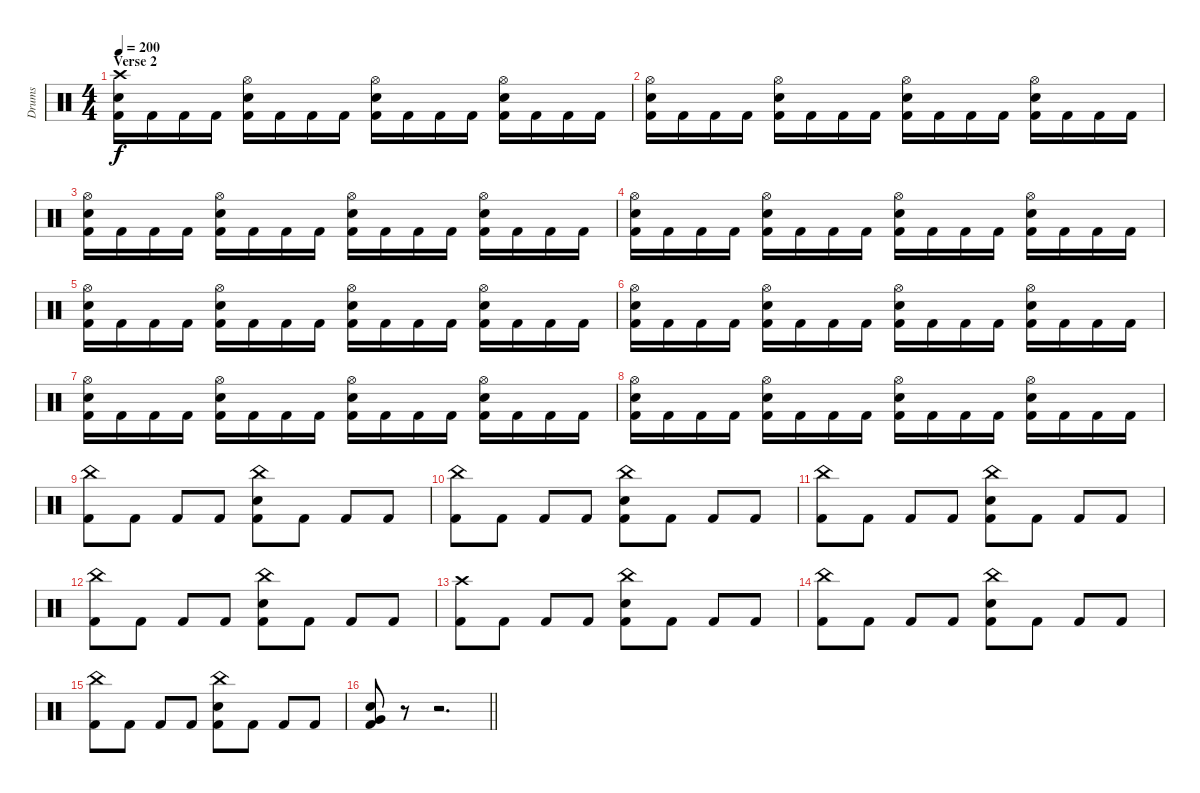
\track ("Drums" "Drums") {instrument percussion}
\staff {score}
\articulation defaults
\ts (4 4)
\section ("" "Verse 2")
\tempo 200
\clef neutral
\ks c
("Crash high (hit)" "Electric Snare (hit)" "Kick (hit) 2").16{dy f} "Kick (hit) 2".16 "Kick (hit) 2".16 "Kick (hit) 2".16 ("Hi-Hat (open)" "Electric Snare (hit)" "Kick (hit) 2").16 "Kick (hit) 2".16 "Kick (hit) 2".16 "Kick (hit) 2".16 ("Hi-Hat (open)" "Electric Snare (hit)" "Kick (hit) 2").16 "Kick (hit) 2".16 "Kick (hit) 2".16 "Kick (hit) 2".16 ("Hi-Hat (open)" "Electric Snare (hit)" "Kick (hit) 2").16 "Kick (hit) 2".16 "Kick (hit) 2".16 "Kick (hit) 2".16 |
("Hi-Hat (open)" "Electric Snare (hit)" "Kick (hit) 2").16 "Kick (hit) 2".16 "Kick (hit) 2".16 "Kick (hit) 2".16 ("Hi-Hat (open)" "Electric Snare (hit)" "Kick (hit) 2").16 "Kick (hit) 2".16 "Kick (hit) 2".16 "Kick (hit) 2".16 ("Hi-Hat (open)" "Electric Snare (hit)" "Kick (hit) 2").16 "Kick (hit) 2".16 "Kick (hit) 2".16 "Kick (hit) 2".16 ("Hi-Hat (open)" "Electric Snare (hit)" "Kick (hit) 2").16 "Kick (hit) 2".16 "Kick (hit) 2".16 "Kick (hit) 2".16 |
("Hi-Hat (open)" "Electric Snare (hit)" "Kick (hit) 2").16 "Kick (hit) 2".16 "Kick (hit) 2".16 "Kick (hit) 2".16 ("Hi-Hat (open)" "Electric Snare (hit)" "Kick (hit) 2").16 "Kick (hit) 2".16 "Kick (hit) 2".16 "Kick (hit) 2".16 ("Hi-Hat (open)" "Electric Snare (hit)" "Kick (hit) 2").16 "Kick (hit) 2".16 "Kick (hit) 2".16 "Kick (hit) 2".16 ("Hi-Hat (open)" "Electric Snare (hit)" "Kick (hit) 2").16 "Kick (hit) 2".16 "Kick (hit) 2".16 "Kick (hit) 2".16 |
("Hi-Hat (open)" "Electric Snare (hit)" "Kick (hit) 2").16 "Kick (hit) 2".16 "Kick (hit) 2".16 "Kick (hit) 2".16 ("Hi-Hat (open)" "Electric Snare (hit)" "Kick (hit) 2").16 "Kick (hit) 2".16 "Kick (hit) 2".16 "Kick (hit) 2".16 ("Hi-Hat (open)" "Electric Snare (hit)" "Kick (hit) 2").16 "Kick (hit) 2".16 "Kick (hit) 2".16 "Kick (hit) 2".16 ("Hi-Hat (open)" "Electric Snare (hit)" "Kick (hit) 2").16 "Kick (hit) 2".16 "Kick (hit) 2".16 "Kick (hit) 2".16 |
("Hi-Hat (open)" "Electric Snare (hit)" "Kick (hit) 2").16 "Kick (hit) 2".16 "Kick (hit) 2".16 "Kick (hit) 2".16 ("Hi-Hat (open)" "Electric Snare (hit)" "Kick (hit) 2").16 "Kick (hit) 2".16 "Kick (hit) 2".16 "Kick (hit) 2".16 ("Hi-Hat (open)" "Electric Snare (hit)" "Kick (hit) 2").16 "Kick (hit) 2".16 "Kick (hit) 2".16 "Kick (hit) 2".16 ("Hi-Hat (open)" "Electric Snare (hit)" "Kick (hit) 2").16 "Kick (hit) 2".16 "Kick (hit) 2".16 "Kick (hit) 2".16 |
("Hi-Hat (open)" "Electric Snare (hit)" "Kick (hit) 2").16 "Kick (hit) 2".16 "Kick (hit) 2".16 "Kick (hit) 2".16 ("Hi-Hat (open)" "Electric Snare (hit)" "Kick (hit) 2").16 "Kick (hit) 2".16 "Kick (hit) 2".16 "Kick (hit) 2".16 ("Hi-Hat (open)" "Electric Snare (hit)" "Kick (hit) 2").16 "Kick (hit) 2".16 "Kick (hit) 2".16 "Kick (hit) 2".16 ("Hi-Hat (open)" "Electric Snare (hit)" "Kick (hit) 2").16 "Kick (hit) 2".16 "Kick (hit) 2".16 "Kick (hit) 2".16 |
("Hi-Hat (open)" "Electric Snare (hit)" "Kick (hit) 2").16 "Kick (hit) 2".16 "Kick (hit) 2".16 "Kick (hit) 2".16 ("Hi-Hat (open)" "Electric Snare (hit)" "Kick (hit) 2").16 "Kick (hit) 2".16 "Kick (hit) 2".16 "Kick (hit) 2".16 ("Hi-Hat (open)" "Electric Snare (hit)" "Kick (hit) 2").16 "Kick (hit) 2".16 "Kick (hit) 2".16 "Kick (hit) 2".16 ("Hi-Hat (open)" "Electric Snare (hit)" "Kick (hit) 2").16 "Kick (hit) 2".16 "Kick (hit) 2".16 "Kick (hit) 2".16 |
("Hi-Hat (open)" "Electric Snare (hit)" "Kick (hit) 2").16 "Kick (hit) 2".16 "Kick (hit) 2".16 "Kick (hit) 2".16 ("Hi-Hat (open)" "Electric Snare (hit)" "Kick (hit) 2").16 "Kick (hit) 2".16 "Kick (hit) 2".16 "Kick (hit) 2".16 ("Hi-Hat (open)" "Electric Snare (hit)" "Kick (hit) 2").16 "Kick (hit) 2".16 "Kick (hit) 2".16 "Kick (hit) 2".16 ("Hi-Hat (open)" "Electric Snare (hit)" "Kick (hit) 2").16 "Kick (hit) 2".16 "Kick (hit) 2".16 "Kick (hit) 2".16 |
("China (hit)" "Kick (hit) 2").8 "Kick (hit) 2".8 "Kick (hit) 2".8 "Kick (hit) 2".8 ("China (hit)" "Electric Snare (hit)" "Kick (hit) 2").8 "Kick (hit) 2".8 "Kick (hit) 2".8 "Kick (hit) 2".8 |
("China (hit)" "Kick (hit) 2").8 "Kick (hit) 2".8 "Kick (hit) 2".8 "Kick (hit) 2".8 ("China (hit)" "Electric Snare (hit)" "Kick (hit) 2").8 "Kick (hit) 2".8 "Kick (hit) 2".8 "Kick (hit) 2".8 |
("China (hit)" "Kick (hit) 2").8 "Kick (hit) 2".8 "Kick (hit) 2".8 "Kick (hit) 2".8 ("China (hit)" "Electric Snare (hit)" "Kick (hit) 2").8 "Kick (hit) 2".8 "Kick (hit) 2".8 "Kick (hit) 2".8 |
("China (hit)" "Kick (hit) 2").8 "Kick (hit) 2".8 "Kick (hit) 2".8 "Kick (hit) 2".8 ("China (hit)" "Electric Snare (hit)" "Kick (hit) 2").8 "Kick (hit) 2".8 "Kick (hit) 2".8 "Kick (hit) 2".8 |
("Crash high (hit)" "Kick (hit) 2").8 "Kick (hit) 2".8 "Kick (hit) 2".8 "Kick (hit) 2".8 ("China (hit)" "Electric Snare (hit)" "Kick (hit) 2").8 "Kick (hit) 2".8 "Kick (hit) 2".8 "Kick (hit) 2".8 |
("China (hit)" "Kick (hit) 2").8 "Kick (hit) 2".8 "Kick (hit) 2".8 "Kick (hit) 2".8 ("China (hit)" "Electric Snare (hit)" "Kick (hit) 2").8 "Kick (hit) 2".8 "Kick (hit) 2".8 "Kick (hit) 2".8 |
("China (hit)" "Kick (hit) 2").8 "Kick (hit) 2".8 "Kick (hit) 2".8 "Kick (hit) 2".8 ("China (hit)" "Electric Snare (hit)" "Kick (hit) 2").8 "Kick (hit) 2".8 "Kick (hit) 2".8 "Kick (hit) 2".8 |
\barLineRight lightlight
("Electric Snare (hit)" "Very Low Tom (hit)" "Kick (hit) 2").8 r.8 r.2{d}
